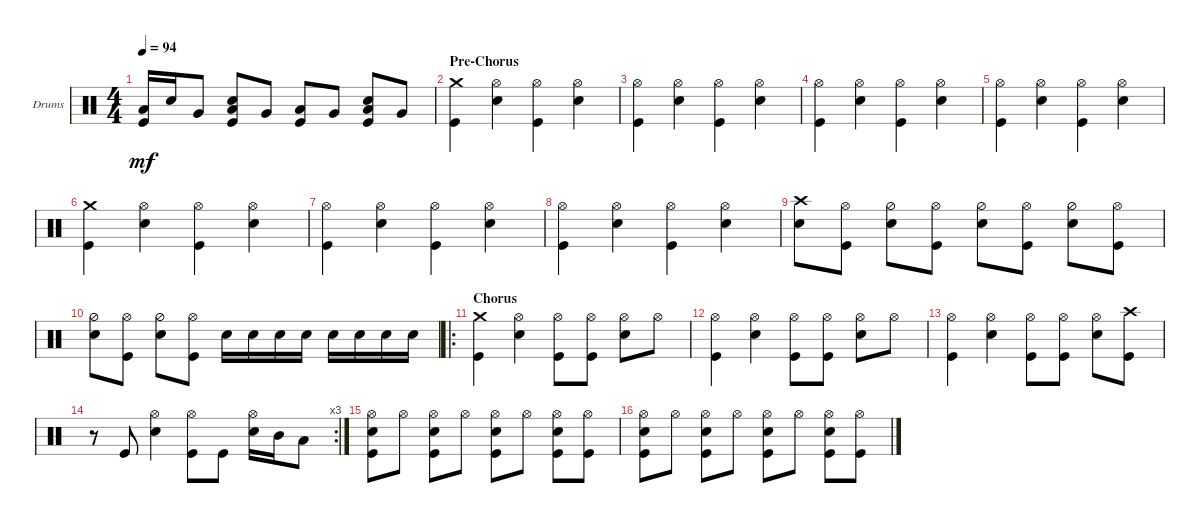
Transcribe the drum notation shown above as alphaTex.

\defaultSystemsLayout 4
\bracketExtendMode groupsimilarinstruments
\firstSystemTrackNameOrientation horizontal
\otherSystemsTrackNameOrientation horizontal
\track ("Drumkit" "Drums") {instrument percussion}
\staff {score}
\articulation defaults
\ts (4 4)
\tempo 94
\clef neutral
\ks c
("Low Tom (hit)" "Kick (hit)").16{dy mf} "Snare (hit) 2".16 "Very Low Tom (hit)".8 ("Low Tom (hit)" "Kick (hit)" "Snare (hit) 2").8 "Very Low Tom (hit)".8 ("Low Tom (hit)" "Kick (hit)").8 "Very Low Tom (hit)".8 ("Kick (hit)" "Low Tom (hit)" "Snare (hit) 2").8 "Very Low Tom (hit)".8 |
\section ("" "Pre-Chorus")
("Kick (hit)" "Crash medium (hit)").4 ("Snare (hit) 2" "Hi-Hat (open)").4 ("Kick (hit)" "Hi-Hat (open)").4 ("Snare (hit) 2" "Hi-Hat (open)").4 |
("Kick (hit)" "Hi-Hat (open)").4 ("Snare (hit) 2" "Hi-Hat (open)").4 ("Kick (hit)" "Hi-Hat (open)").4 ("Snare (hit) 2" "Hi-Hat (open)").4 |
("Kick (hit)" "Hi-Hat (open)").4 ("Snare (hit) 2" "Hi-Hat (open)").4 ("Kick (hit)" "Hi-Hat (open)").4 ("Snare (hit) 2" "Hi-Hat (open)").4 |
("Kick (hit)" "Hi-Hat (open)").4 ("Snare (hit) 2" "Hi-Hat (open)").4 ("Kick (hit)" "Hi-Hat (open)").4 ("Snare (hit) 2" "Hi-Hat (open)").4 |
("Kick (hit)" "Crash medium (hit)").4 ("Snare (hit) 2" "Hi-Hat (open)").4 ("Kick (hit)" "Hi-Hat (open)").4 ("Snare (hit) 2" "Hi-Hat (open)").4 |
("Kick (hit)" "Hi-Hat (open)").4 ("Snare (hit) 2" "Hi-Hat (open)").4 ("Kick (hit)" "Hi-Hat (open)").4 ("Snare (hit) 2" "Hi-Hat (open)").4 |
("Kick (hit)" "Hi-Hat (open)").4 ("Snare (hit) 2" "Hi-Hat (open)").4 ("Kick (hit)" "Hi-Hat (open)").4 ("Snare (hit) 2" "Hi-Hat (open)").4 |
("Snare (hit) 2" "Crash high (hit)").8 ("Hi-Hat (open)" "Kick (hit)").8 ("Snare (hit) 2" "Hi-Hat (half)").8 ("Hi-Hat (open)" "Kick (hit)").8 ("Snare (hit) 2" "Hi-Hat (half)").8 ("Hi-Hat (open)" "Kick (hit)").8 ("Snare (hit) 2" "Hi-Hat (half)").8 ("Hi-Hat (open)" "Kick (hit)").8 |
("Snare (hit) 2" "Hi-Hat (half)").8 ("Hi-Hat (open)" "Kick (hit)").8 ("Snare (hit) 2" "Hi-Hat (half)").8 ("Hi-Hat (open)" "Kick (hit)").8 "Snare (hit) 2".16 "Snare (hit) 2".16 "Snare (hit) 2".16 "Snare (hit) 2".16 "Snare (hit) 2".16 "Snare (hit) 2".16 "Snare (hit) 2".16 "Snare (hit) 2".16 |
\ro
\section ("" "Chorus")
("Kick (hit)" "Crash medium (hit)").4 ("Snare (hit) 2" "Hi-Hat (open)").4 ("Kick (hit)" "Hi-Hat (open)").8 ("Kick (hit)" "Hi-Hat (open)").8 ("Snare (hit) 2" "Hi-Hat (open)").8 "Hi-Hat (open)".8 |
("Kick (hit)" "Hi-Hat (open)").4 ("Snare (hit) 2" "Hi-Hat (open)").4 ("Kick (hit)" "Hi-Hat (open)").8 ("Kick (hit)" "Hi-Hat (open)").8 ("Snare (hit) 2" "Hi-Hat (open)").8 "Hi-Hat (open)".8 |
("Kick (hit)" "Hi-Hat (open)").4 ("Snare (hit) 2" "Hi-Hat (open)").4 ("Kick (hit)" "Hi-Hat (open)").8 ("Kick (hit)" "Hi-Hat (open)").8 ("Snare (hit) 2" "Hi-Hat (open)").8 ("Crash high (hit)" "Kick (hit)").8 |
\rc 3
r.8 "Kick (hit)".8 ("Snare (hit) 2" "Hi-Hat (open)").4 ("Kick (hit)" "Hi-Hat (open)").8 "Kick (hit)".8 ("Snare (hit) 2" "Hi-Hat (open)").16 "Mid Tom (hit)".16 "Low Tom (hit)".8 |
("Snare (hit) 2" "Hi-Hat (open)" "Kick (hit)").8 "Hi-Hat (open)".8 ("Snare (hit) 2" "Hi-Hat (open)" "Kick (hit)").8 "Hi-Hat (open)".8 ("Snare (hit) 2" "Hi-Hat (open)" "Kick (hit)").8 "Hi-Hat (open)".8 ("Snare (hit) 2" "Hi-Hat (open)" "Kick (hit)").8 ("Kick (hit)" "Hi-Hat (open)").8 |
("Snare (hit) 2" "Hi-Hat (open)" "Kick (hit)").8 "Hi-Hat (open)".8 ("Snare (hit) 2" "Hi-Hat (open)" "Kick (hit)").8 "Hi-Hat (open)".8 ("Snare (hit) 2" "Hi-Hat (open)" "Kick (hit)").8 "Hi-Hat (open)".8 ("Snare (hit) 2" "Hi-Hat (open)" "Kick (hit)").8 ("Kick (hit)" "Hi-Hat (open)").8
